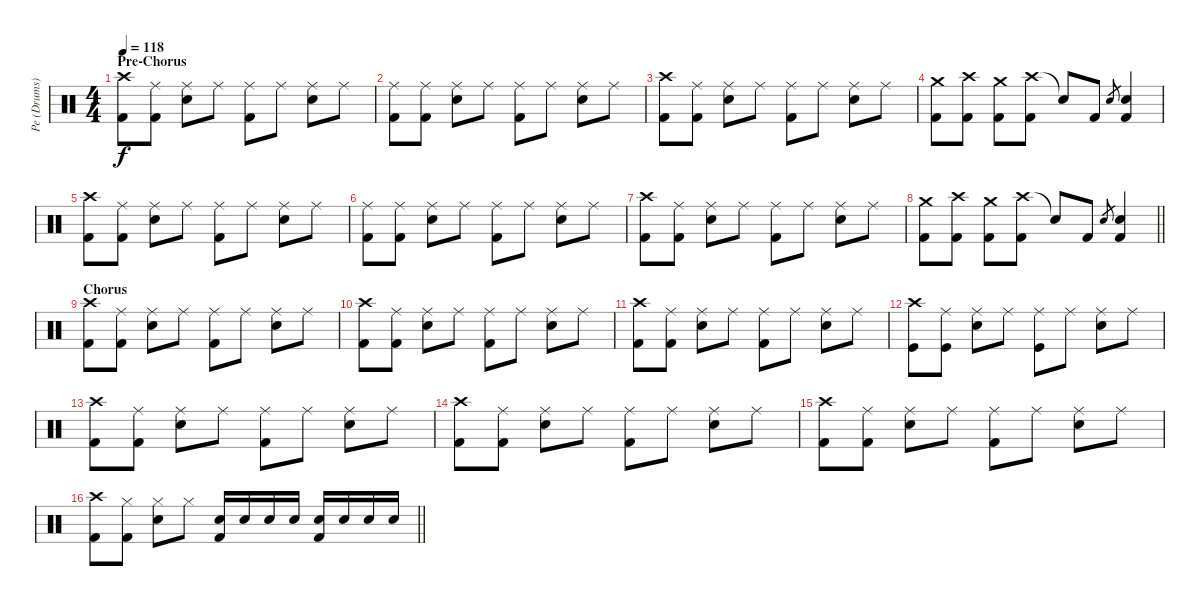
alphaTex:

\track ("Pe (Drums)" "Pe (Drums)") {instrument percussion}
\staff {score}
\articulation defaults
\ts (4 4)
\section ("" "Pre-Chorus")
\tempo 118
\clef neutral
\ks c
("Crash high (hit)" "Kick (hit) 2").8{dy f} ("Ride (middle)" "Kick (hit) 2").8 ("Ride (middle)" "Snare (hit) 2").8 "Ride (middle)".8 ("Ride (middle)" "Kick (hit) 2").8 "Ride (middle)".8 ("Ride (middle)" "Snare (hit) 2").8 "Ride (middle)".8 |
("Ride (middle)" "Kick (hit) 2").8 ("Ride (middle)" "Kick (hit) 2").8 ("Ride (middle)" "Snare (hit) 2").8 "Ride (middle)".8 ("Ride (middle)" "Kick (hit) 2").8 "Ride (middle)".8 ("Ride (middle)" "Snare (hit) 2").8 "Ride (middle)".8 |
("Crash high (hit)" "Kick (hit) 2").8 ("Ride (middle)" "Kick (hit) 2").8 ("Ride (middle)" "Snare (hit) 2").8 "Ride (middle)".8 ("Ride (middle)" "Kick (hit) 2").8 "Ride (middle)".8 ("Ride (middle)" "Snare (hit) 2").8 "Ride (middle)".8 |
("Crash medium (hit)" "Kick (hit) 2").8 ("Crash high (hit)" "Kick (hit) 2").8 ("Crash medium (hit)" "Kick (hit) 2").8 ("Crash high (hit)" "Kick (hit) 2").8 "Snare (hit)"{t}.8 "Kick (hit) 2".8 "Snare (hit) 2".8{gr} ("Snare (hit) 2" "Kick (hit) 2").4 |
("Crash high (hit)" "Kick (hit) 2").8 ("Ride (middle)" "Kick (hit) 2").8 ("Ride (middle)" "Snare (hit) 2").8 "Ride (middle)".8 ("Ride (middle)" "Kick (hit) 2").8 "Ride (middle)".8 ("Ride (middle)" "Snare (hit) 2").8 "Ride (middle)".8 |
("Ride (middle)" "Kick (hit) 2").8 ("Ride (middle)" "Kick (hit) 2").8 ("Ride (middle)" "Snare (hit) 2").8 "Ride (middle)".8 ("Ride (middle)" "Kick (hit) 2").8 "Ride (middle)".8 ("Ride (middle)" "Snare (hit) 2").8 "Ride (middle)".8 |
("Crash high (hit)" "Kick (hit) 2").8 ("Ride (middle)" "Kick (hit) 2").8 ("Ride (middle)" "Snare (hit) 2").8 "Ride (middle)".8 ("Ride (middle)" "Kick (hit) 2").8 "Ride (middle)".8 ("Ride (middle)" "Snare (hit) 2").8 "Ride (middle)".8 |
\barLineRight lightlight
("Crash medium (hit)" "Kick (hit) 2").8 ("Crash high (hit)" "Kick (hit) 2").8 ("Crash medium (hit)" "Kick (hit) 2").8 ("Crash high (hit)" "Kick (hit) 2").8 "Snare (hit)"{t}.8 "Kick (hit) 2".8 "Snare (hit) 2".8{gr} ("Snare (hit) 2" "Kick (hit) 2").4 |
\section ("" "Chorus")
("Crash high (hit)" "Kick (hit) 2").8 ("Ride (middle)" "Kick (hit) 2").8 ("Ride (middle)" "Snare (hit) 2").8 "Ride (middle)".8 ("Ride (middle)" "Kick (hit) 2").8 "Ride (middle)".8 ("Ride (middle)" "Snare (hit) 2").8 "Ride (middle)".8 |
("Crash high (hit)" "Kick (hit) 2").8 ("Ride (middle)" "Kick (hit) 2").8 ("Ride (middle)" "Snare (hit) 2").8 "Ride (middle)".8 ("Ride (middle)" "Kick (hit) 2").8 "Ride (middle)".8 ("Ride (middle)" "Snare (hit) 2").8 "Ride (middle)".8 |
("Crash high (hit)" "Kick (hit) 2").8 ("Ride (middle)" "Kick (hit) 2").8 ("Ride (middle)" "Snare (hit) 2").8 "Ride (middle)".8 ("Ride (middle)" "Kick (hit) 2").8 "Ride (middle)".8 ("Ride (middle)" "Snare (hit) 2").8 "Ride (middle)".8 |
("Crash high (hit)" "Kick (hit)").8 ("Ride (middle)" "Kick (hit)").8 ("Ride (middle)" "Electric Snare (hit)").8 "Ride (middle)".8 ("Ride (middle)" "Kick (hit)").8 "Ride (middle)".8 ("Ride (middle)" "Electric Snare (hit)").8 "Ride (middle)".8 |
("Crash high (hit)" "Kick (hit) 2").8 ("Ride (middle)" "Kick (hit) 2").8 ("Ride (middle)" "Snare (hit) 2").8 "Ride (middle)".8 ("Ride (middle)" "Kick (hit) 2").8 "Ride (middle)".8 ("Ride (middle)" "Snare (hit) 2").8 "Ride (middle)".8 |
("Crash high (hit)" "Kick (hit) 2").8 ("Ride (middle)" "Kick (hit) 2").8 ("Ride (middle)" "Snare (hit) 2").8 "Ride (middle)".8 ("Ride (middle)" "Kick (hit) 2").8 "Ride (middle)".8 ("Ride (middle)" "Snare (hit) 2").8 "Ride (middle)".8 |
("Crash high (hit)" "Kick (hit) 2").8 ("Ride (middle)" "Kick (hit) 2").8 ("Ride (middle)" "Snare (hit) 2").8 "Ride (middle)".8 ("Ride (middle)" "Kick (hit) 2").8 "Ride (middle)".8 ("Ride (middle)" "Snare (hit) 2").8 "Ride (middle)".8 |
\barLineRight lightlight
("Crash high (hit)" "Kick (hit) 2").8 ("Hi-Hat (closed)" "Kick (hit) 2").8 ("Hi-Hat (closed)" "Snare (hit) 2").8 "Hi-Hat (closed)".8 ("Snare (hit) 2" "Kick (hit) 2").16 "Snare (hit) 2".16 "Snare (hit) 2".16 "Snare (hit) 2".16 ("Snare (hit) 2" "Kick (hit) 2").16 "Snare (hit) 2".16 "Snare (hit) 2".16 "Snare (hit) 2".16
